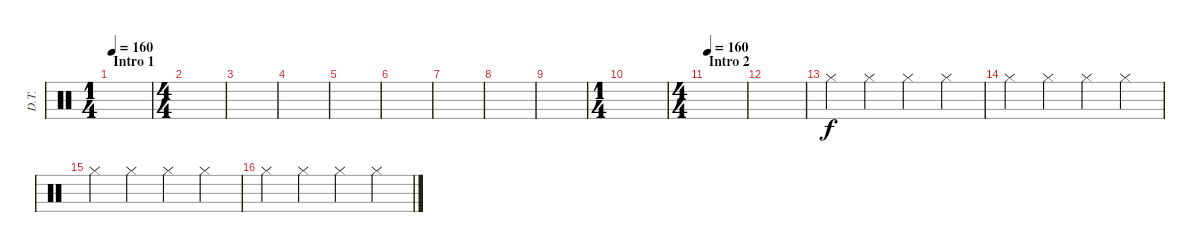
\track ("D.T." "D.T.") {instrument percussion}
\staff {score}
\articulation defaults
\ts (1 4)
\section ("" "Intro 1")
\tempo 160
\tempo 200
\tempo 160
\clef neutral
\ks c
|
\ts (4 4)
|
|
|
|
|
|
|
|
\ts (1 4)
|
\ts (4 4)
\section ("" "Intro 2")
\tempo 160
|
|
"Hi-Hat (closed)".4 "Hi-Hat (closed)".4 "Hi-Hat (closed)".4 "Hi-Hat (closed)".4 |
"Hi-Hat (closed)".4 "Hi-Hat (closed)".4 "Hi-Hat (closed)".4 "Hi-Hat (closed)".4 |
"Hi-Hat (closed)".4 "Hi-Hat (closed)".4 "Hi-Hat (closed)".4 "Hi-Hat (closed)".4 |
"Hi-Hat (closed)".4 "Hi-Hat (closed)".4 "Hi-Hat (closed)".4 "Hi-Hat (closed)".4
